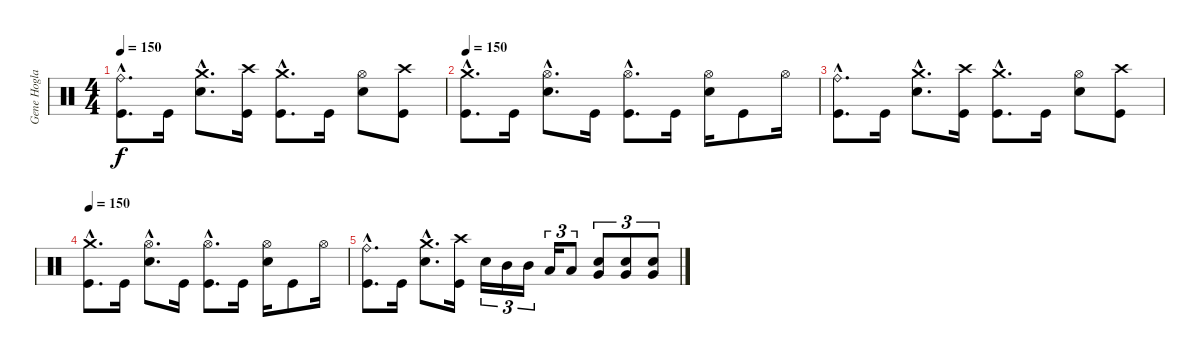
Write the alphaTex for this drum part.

\track ("Gene Hoglan" "Gene Hogla") {instrument percussion}
\staff {score}
\articulation defaults
\ts (4 4)
\tempo 150
\clef neutral
\ks c
("Ride (bell)"{hac} "Kick (hit)"{hac}).8{d dy f} "Kick (hit)".16 ("Crash medium (hit)"{hac} "Electric Snare (hit)"{hac}).8{d} ("Crash high (hit)" "Kick (hit)").16 ("Crash medium (hit)"{hac} "Kick (hit)"{hac}).8{d} "Kick (hit)".16 ("Hi-Hat (open)" "Electric Snare (hit)").8 ("Crash high (hit)" "Kick (hit)").8 |
\tempo 150
("Crash medium (hit)"{hac} "Kick (hit)"{hac}).8{d} "Kick (hit)".16 ("Hi-Hat (open)"{hac} "Electric Snare (hit)"{hac}).8{d} "Kick (hit)".16 ("Hi-Hat (open)"{hac} "Kick (hit)"{hac}).8{d} "Kick (hit)".16 ("Hi-Hat (open)" "Electric Snare (hit)").16 "Kick (hit)".8 "Hi-Hat (open)".16 |
("Ride (bell)"{hac} "Kick (hit)"{hac}).8{d} "Kick (hit)".16 ("Crash medium (hit)"{hac} "Electric Snare (hit)"{hac}).8{d} ("Crash high (hit)" "Kick (hit)").16 ("Crash medium (hit)"{hac} "Kick (hit)"{hac}).8{d} "Kick (hit)".16 ("Hi-Hat (open)" "Electric Snare (hit)").8 ("Crash high (hit)" "Kick (hit)").8 |
\tempo 150
("Crash medium (hit)"{hac} "Kick (hit)"{hac}).8{d} "Kick (hit)".16 ("Hi-Hat (open)"{hac} "Electric Snare (hit)"{hac}).8{d} "Kick (hit)".16 ("Hi-Hat (open)"{hac} "Kick (hit)"{hac}).8{d} "Kick (hit)".16 ("Hi-Hat (open)" "Electric Snare (hit)").16 "Kick (hit)".8 "Hi-Hat (open)".16 |
("Ride (bell)"{hac} "Kick (hit)"{hac}).8{d} "Kick (hit)".16 ("Crash medium (hit)"{hac} "Electric Snare (hit)"{hac}).8{d} ("Crash high (hit)" "Kick (hit)").16 "Electric Snare (hit)".16{tu (3 2)} "Mid Tom (hit)".16{tu (3 2)} "Mid Tom (hit)".16{tu (3 2)} "Low Tom (hit)".16{tu (3 2)} "Low Tom (hit)".8{tu (3 2)} ("Very Low Tom (hit)" "Electric Snare (hit)").8{tu (3 2)} ("Very Low Tom (hit)" "Electric Snare (hit)").8{tu (3 2)} ("Very Low Tom (hit)" "Electric Snare (hit)").8{tu (3 2)}
